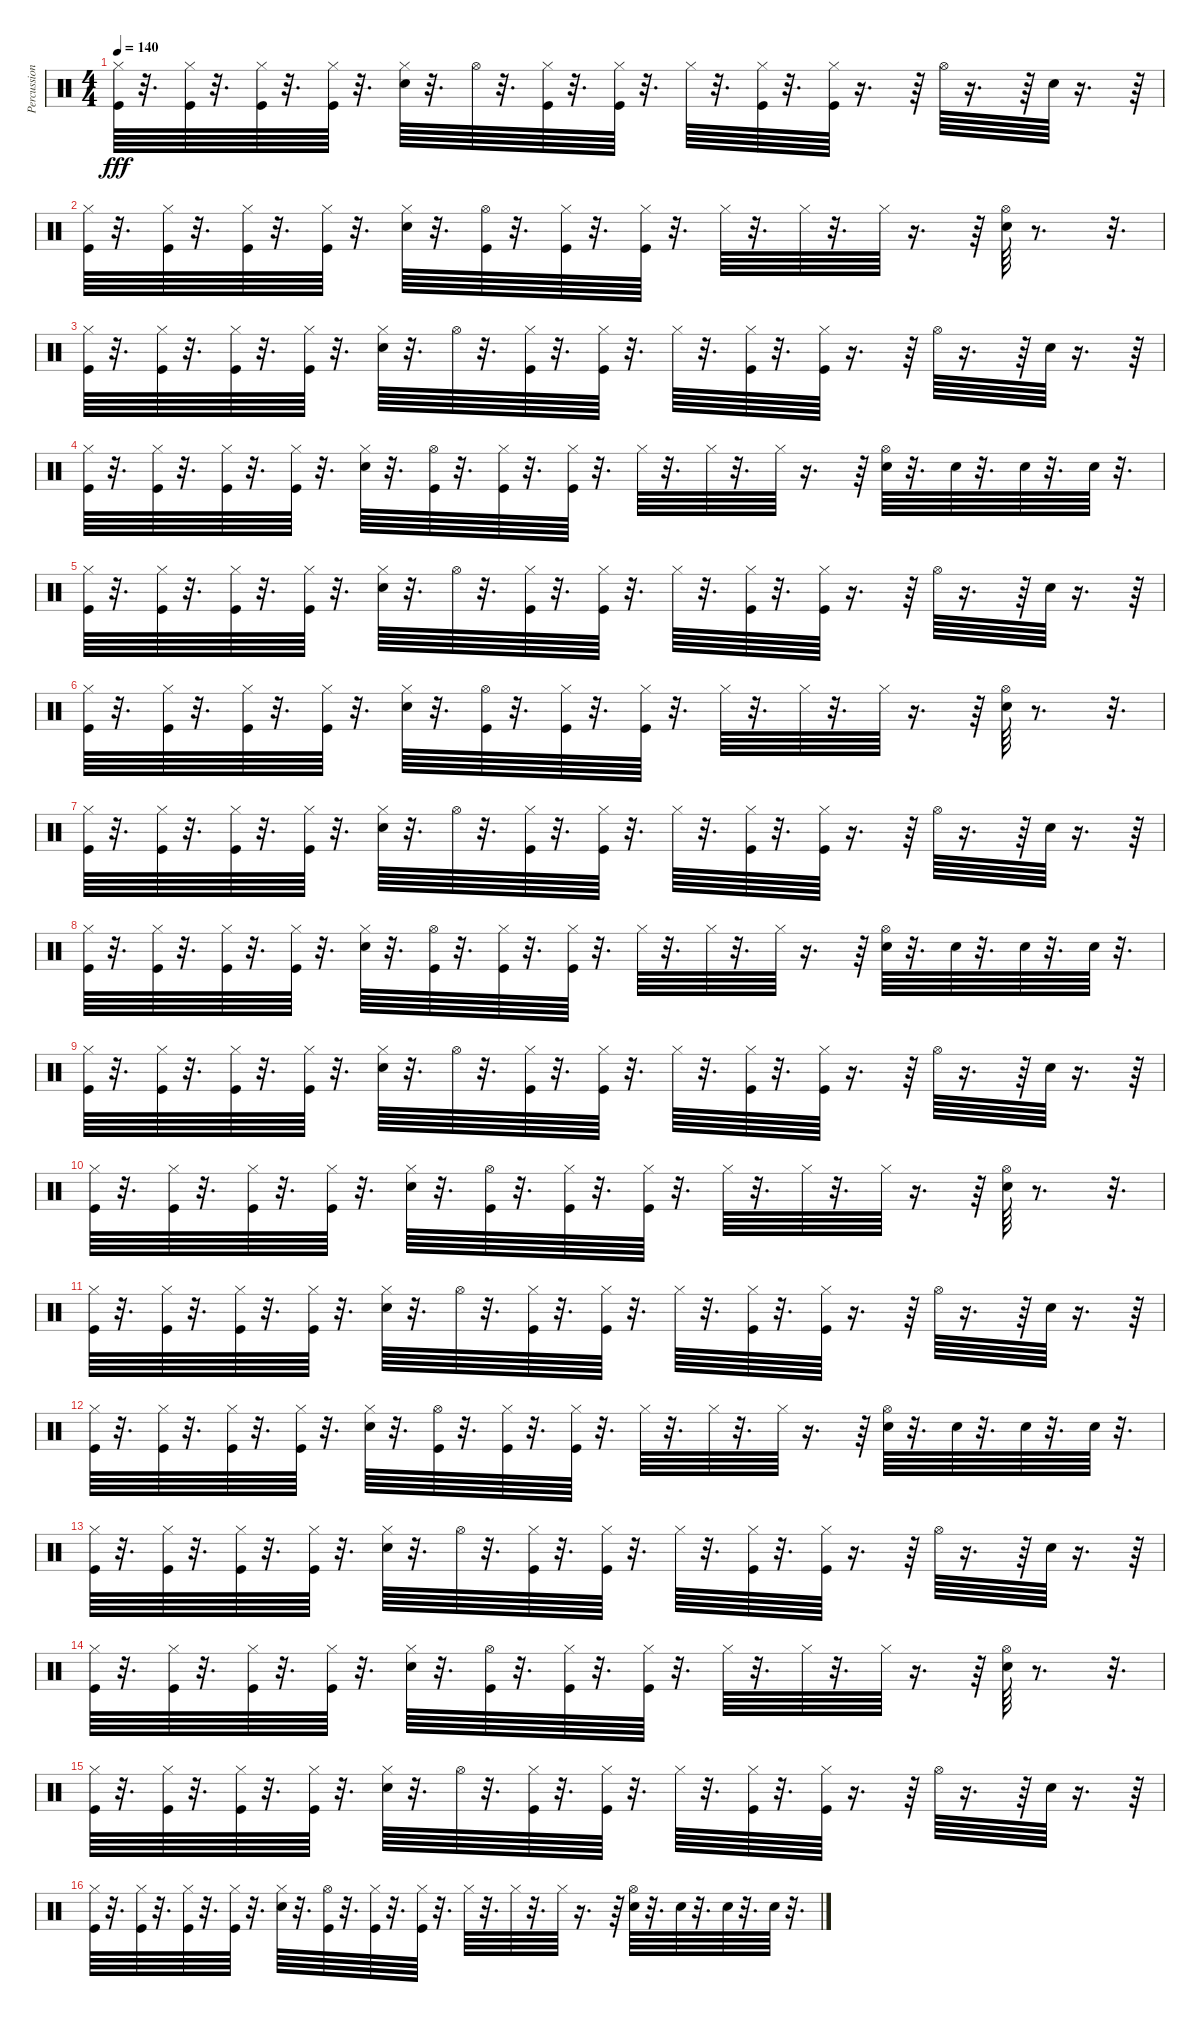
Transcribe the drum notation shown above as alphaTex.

\track ("Percussion [Room Kit]" "Percussion") {instrument percussion}
\staff {score}
\articulation defaults
\ts (4 4)
\tempo 140
\clef neutral
\ks c
("Kick (hit)" "Hi-Hat (closed)").64{dy fff} r.32{d} ("Kick (hit)" "Hi-Hat (closed)").64 r.32{d} ("Kick (hit)" "Hi-Hat (closed)").64 r.32{d} ("Kick (hit)" "Hi-Hat (closed)").64 r.32{d} ("Electric Snare (hit)" "Hi-Hat (closed)").64 r.32{d} "Hi-Hat (open)".64 r.32{d} ("Kick (hit)" "Hi-Hat (closed)").64 r.32{d} ("Kick (hit)" "Hi-Hat (closed)").64 r.32{d} "Hi-Hat (closed)".64 r.32{d} ("Kick (hit)" "Hi-Hat (closed)").64 r.32{d} ("Kick (hit)" "Hi-Hat (closed)").64 r.16{d} r.64 "Hi-Hat (open)".64 r.16{d} r.64 "Electric Snare (hit)".64 r.16{d} r.64 |
("Kick (hit)" "Hi-Hat (closed)").64 r.32{d} ("Kick (hit)" "Hi-Hat (closed)").64 r.32{d} ("Kick (hit)" "Hi-Hat (closed)").64 r.32{d} ("Kick (hit)" "Hi-Hat (closed)").64 r.32{d} ("Electric Snare (hit)" "Hi-Hat (closed)").64 r.32{d} ("Kick (hit)" "Hi-Hat (open)").64 r.32{d} ("Kick (hit)" "Hi-Hat (closed)").64 r.32{d} ("Kick (hit)" "Hi-Hat (closed)").64 r.32{d} "Hi-Hat (closed)".64 r.32{d} "Hi-Hat (closed)".64 r.32{d} "Hi-Hat (closed)".64 r.16{d} r.64 ("Electric Snare (hit)" "Hi-Hat (open)").64 r.8{d} r.32{d} |
("Kick (hit)" "Hi-Hat (closed)").64 r.32{d} ("Kick (hit)" "Hi-Hat (closed)").64 r.32{d} ("Kick (hit)" "Hi-Hat (closed)").64 r.32{d} ("Kick (hit)" "Hi-Hat (closed)").64 r.32{d} ("Electric Snare (hit)" "Hi-Hat (closed)").64 r.32{d} "Hi-Hat (open)".64 r.32{d} ("Kick (hit)" "Hi-Hat (closed)").64 r.32{d} ("Kick (hit)" "Hi-Hat (closed)").64 r.32{d} "Hi-Hat (closed)".64 r.32{d} ("Kick (hit)" "Hi-Hat (closed)").64 r.32{d} ("Kick (hit)" "Hi-Hat (closed)").64 r.16{d} r.64 "Hi-Hat (open)".64 r.16{d} r.64 "Electric Snare (hit)".64 r.16{d} r.64 |
("Kick (hit)" "Hi-Hat (closed)").64 r.32{d} ("Kick (hit)" "Hi-Hat (closed)").64 r.32{d} ("Kick (hit)" "Hi-Hat (closed)").64 r.32{d} ("Kick (hit)" "Hi-Hat (closed)").64 r.32{d} ("Electric Snare (hit)" "Hi-Hat (closed)").64 r.32{d} ("Kick (hit)" "Hi-Hat (open)").64 r.32{d} ("Kick (hit)" "Hi-Hat (closed)").64 r.32{d} ("Kick (hit)" "Hi-Hat (closed)").64 r.32{d} "Hi-Hat (closed)".64 r.32{d} "Hi-Hat (closed)".64 r.32{d} "Hi-Hat (closed)".64 r.16{d} r.64 ("Electric Snare (hit)" "Hi-Hat (open)").64 r.32{d} "Electric Snare (hit)".64 r.32{d} "Electric Snare (hit)".64 r.32{d} "Electric Snare (hit)".64 r.32{d} |
("Kick (hit)" "Hi-Hat (closed)").64 r.32{d} ("Kick (hit)" "Hi-Hat (closed)").64 r.32{d} ("Kick (hit)" "Hi-Hat (closed)").64 r.32{d} ("Kick (hit)" "Hi-Hat (closed)").64 r.32{d} ("Electric Snare (hit)" "Hi-Hat (closed)").64 r.32{d} "Hi-Hat (open)".64 r.32{d} ("Kick (hit)" "Hi-Hat (closed)").64 r.32{d} ("Kick (hit)" "Hi-Hat (closed)").64 r.32{d} "Hi-Hat (closed)".64 r.32{d} ("Kick (hit)" "Hi-Hat (closed)").64 r.32{d} ("Kick (hit)" "Hi-Hat (closed)").64 r.16{d} r.64 "Hi-Hat (open)".64 r.16{d} r.64 "Electric Snare (hit)".64 r.16{d} r.64 |
("Kick (hit)" "Hi-Hat (closed)").64 r.32{d} ("Kick (hit)" "Hi-Hat (closed)").64 r.32{d} ("Kick (hit)" "Hi-Hat (closed)").64 r.32{d} ("Kick (hit)" "Hi-Hat (closed)").64 r.32{d} ("Electric Snare (hit)" "Hi-Hat (closed)").64 r.32{d} ("Kick (hit)" "Hi-Hat (open)").64 r.32{d} ("Kick (hit)" "Hi-Hat (closed)").64 r.32{d} ("Kick (hit)" "Hi-Hat (closed)").64 r.32{d} "Hi-Hat (closed)".64 r.32{d} "Hi-Hat (closed)".64 r.32{d} "Hi-Hat (closed)".64 r.16{d} r.64 ("Electric Snare (hit)" "Hi-Hat (open)").64 r.8{d} r.32{d} |
("Kick (hit)" "Hi-Hat (closed)").64 r.32{d} ("Kick (hit)" "Hi-Hat (closed)").64 r.32{d} ("Kick (hit)" "Hi-Hat (closed)").64 r.32{d} ("Kick (hit)" "Hi-Hat (closed)").64 r.32{d} ("Electric Snare (hit)" "Hi-Hat (closed)").64 r.32{d} "Hi-Hat (open)".64 r.32{d} ("Kick (hit)" "Hi-Hat (closed)").64 r.32{d} ("Kick (hit)" "Hi-Hat (closed)").64 r.32{d} "Hi-Hat (closed)".64 r.32{d} ("Kick (hit)" "Hi-Hat (closed)").64 r.32{d} ("Kick (hit)" "Hi-Hat (closed)").64 r.16{d} r.64 "Hi-Hat (open)".64 r.16{d} r.64 "Electric Snare (hit)".64 r.16{d} r.64 |
("Kick (hit)" "Hi-Hat (closed)").64 r.32{d} ("Kick (hit)" "Hi-Hat (closed)").64 r.32{d} ("Kick (hit)" "Hi-Hat (closed)").64 r.32{d} ("Kick (hit)" "Hi-Hat (closed)").64 r.32{d} ("Electric Snare (hit)" "Hi-Hat (closed)").64 r.32{d} ("Kick (hit)" "Hi-Hat (open)").64 r.32{d} ("Kick (hit)" "Hi-Hat (closed)").64 r.32{d} ("Kick (hit)" "Hi-Hat (closed)").64 r.32{d} "Hi-Hat (closed)".64 r.32{d} "Hi-Hat (closed)".64 r.32{d} "Hi-Hat (closed)".64 r.16{d} r.64 ("Electric Snare (hit)" "Hi-Hat (open)").64 r.32{d} "Electric Snare (hit)".64 r.32{d} "Electric Snare (hit)".64 r.32{d} "Electric Snare (hit)".64 r.32{d} |
("Kick (hit)" "Hi-Hat (closed)").64 r.32{d} ("Kick (hit)" "Hi-Hat (closed)").64 r.32{d} ("Kick (hit)" "Hi-Hat (closed)").64 r.32{d} ("Kick (hit)" "Hi-Hat (closed)").64 r.32{d} ("Electric Snare (hit)" "Hi-Hat (closed)").64 r.32{d} "Hi-Hat (open)".64 r.32{d} ("Kick (hit)" "Hi-Hat (closed)").64 r.32{d} ("Kick (hit)" "Hi-Hat (closed)").64 r.32{d} "Hi-Hat (closed)".64 r.32{d} ("Kick (hit)" "Hi-Hat (closed)").64 r.32{d} ("Kick (hit)" "Hi-Hat (closed)").64 r.16{d} r.64 "Hi-Hat (open)".64 r.16{d} r.64 "Electric Snare (hit)".64 r.16{d} r.64 |
("Kick (hit)" "Hi-Hat (closed)").64 r.32{d} ("Kick (hit)" "Hi-Hat (closed)").64 r.32{d} ("Kick (hit)" "Hi-Hat (closed)").64 r.32{d} ("Kick (hit)" "Hi-Hat (closed)").64 r.32{d} ("Electric Snare (hit)" "Hi-Hat (closed)").64 r.32{d} ("Kick (hit)" "Hi-Hat (open)").64 r.32{d} ("Kick (hit)" "Hi-Hat (closed)").64 r.32{d} ("Kick (hit)" "Hi-Hat (closed)").64 r.32{d} "Hi-Hat (closed)".64 r.32{d} "Hi-Hat (closed)".64 r.32{d} "Hi-Hat (closed)".64 r.16{d} r.64 ("Electric Snare (hit)" "Hi-Hat (open)").64 r.8{d} r.32{d} |
("Kick (hit)" "Hi-Hat (closed)").64 r.32{d} ("Kick (hit)" "Hi-Hat (closed)").64 r.32{d} ("Kick (hit)" "Hi-Hat (closed)").64 r.32{d} ("Kick (hit)" "Hi-Hat (closed)").64 r.32{d} ("Electric Snare (hit)" "Hi-Hat (closed)").64 r.32{d} "Hi-Hat (open)".64 r.32{d} ("Kick (hit)" "Hi-Hat (closed)").64 r.32{d} ("Kick (hit)" "Hi-Hat (closed)").64 r.32{d} "Hi-Hat (closed)".64 r.32{d} ("Kick (hit)" "Hi-Hat (closed)").64 r.32{d} ("Kick (hit)" "Hi-Hat (closed)").64 r.16{d} r.64 "Hi-Hat (open)".64 r.16{d} r.64 "Electric Snare (hit)".64 r.16{d} r.64 |
("Kick (hit)" "Hi-Hat (closed)").64 r.32{d} ("Kick (hit)" "Hi-Hat (closed)").64 r.32{d} ("Kick (hit)" "Hi-Hat (closed)").64 r.32{d} ("Kick (hit)" "Hi-Hat (closed)").64 r.32{d} ("Electric Snare (hit)" "Hi-Hat (closed)").64 r.32{d} ("Kick (hit)" "Hi-Hat (open)").64 r.32{d} ("Kick (hit)" "Hi-Hat (closed)").64 r.32{d} ("Kick (hit)" "Hi-Hat (closed)").64 r.32{d} "Hi-Hat (closed)".64 r.32{d} "Hi-Hat (closed)".64 r.32{d} "Hi-Hat (closed)".64 r.16{d} r.64 ("Electric Snare (hit)" "Hi-Hat (open)").64 r.32{d} "Electric Snare (hit)".64 r.32{d} "Electric Snare (hit)".64 r.32{d} "Electric Snare (hit)".64 r.32{d} |
("Kick (hit)" "Hi-Hat (closed)").64 r.32{d} ("Kick (hit)" "Hi-Hat (closed)").64 r.32{d} ("Kick (hit)" "Hi-Hat (closed)").64 r.32{d} ("Kick (hit)" "Hi-Hat (closed)").64 r.32{d} ("Electric Snare (hit)" "Hi-Hat (closed)").64 r.32{d} "Hi-Hat (open)".64 r.32{d} ("Kick (hit)" "Hi-Hat (closed)").64 r.32{d} ("Kick (hit)" "Hi-Hat (closed)").64 r.32{d} "Hi-Hat (closed)".64 r.32{d} ("Kick (hit)" "Hi-Hat (closed)").64 r.32{d} ("Kick (hit)" "Hi-Hat (closed)").64 r.16{d} r.64 "Hi-Hat (open)".64 r.16{d} r.64 "Electric Snare (hit)".64 r.16{d} r.64 |
("Kick (hit)" "Hi-Hat (closed)").64 r.32{d} ("Kick (hit)" "Hi-Hat (closed)").64 r.32{d} ("Kick (hit)" "Hi-Hat (closed)").64 r.32{d} ("Kick (hit)" "Hi-Hat (closed)").64 r.32{d} ("Electric Snare (hit)" "Hi-Hat (closed)").64 r.32{d} ("Kick (hit)" "Hi-Hat (open)").64 r.32{d} ("Kick (hit)" "Hi-Hat (closed)").64 r.32{d} ("Kick (hit)" "Hi-Hat (closed)").64 r.32{d} "Hi-Hat (closed)".64 r.32{d} "Hi-Hat (closed)".64 r.32{d} "Hi-Hat (closed)".64 r.16{d} r.64 ("Electric Snare (hit)" "Hi-Hat (open)").64 r.8{d} r.32{d} |
("Kick (hit)" "Hi-Hat (closed)").64 r.32{d} ("Kick (hit)" "Hi-Hat (closed)").64 r.32{d} ("Kick (hit)" "Hi-Hat (closed)").64 r.32{d} ("Kick (hit)" "Hi-Hat (closed)").64 r.32{d} ("Electric Snare (hit)" "Hi-Hat (closed)").64 r.32{d} "Hi-Hat (open)".64 r.32{d} ("Kick (hit)" "Hi-Hat (closed)").64 r.32{d} ("Kick (hit)" "Hi-Hat (closed)").64 r.32{d} "Hi-Hat (closed)".64 r.32{d} ("Kick (hit)" "Hi-Hat (closed)").64 r.32{d} ("Kick (hit)" "Hi-Hat (closed)").64 r.16{d} r.64 "Hi-Hat (open)".64 r.16{d} r.64 "Electric Snare (hit)".64 r.16{d} r.64 |
("Kick (hit)" "Hi-Hat (closed)").64 r.32{d} ("Kick (hit)" "Hi-Hat (closed)").64 r.32{d} ("Kick (hit)" "Hi-Hat (closed)").64 r.32{d} ("Kick (hit)" "Hi-Hat (closed)").64 r.32{d} ("Electric Snare (hit)" "Hi-Hat (closed)").64 r.32{d} ("Kick (hit)" "Hi-Hat (open)").64 r.32{d} ("Kick (hit)" "Hi-Hat (closed)").64 r.32{d} ("Kick (hit)" "Hi-Hat (closed)").64 r.32{d} "Hi-Hat (closed)".64 r.32{d} "Hi-Hat (closed)".64 r.32{d} "Hi-Hat (closed)".64 r.16{d} r.64 ("Electric Snare (hit)" "Hi-Hat (open)").64 r.32{d} "Electric Snare (hit)".64 r.32{d} "Electric Snare (hit)".64 r.32{d} "Electric Snare (hit)".64 r.32{d}
